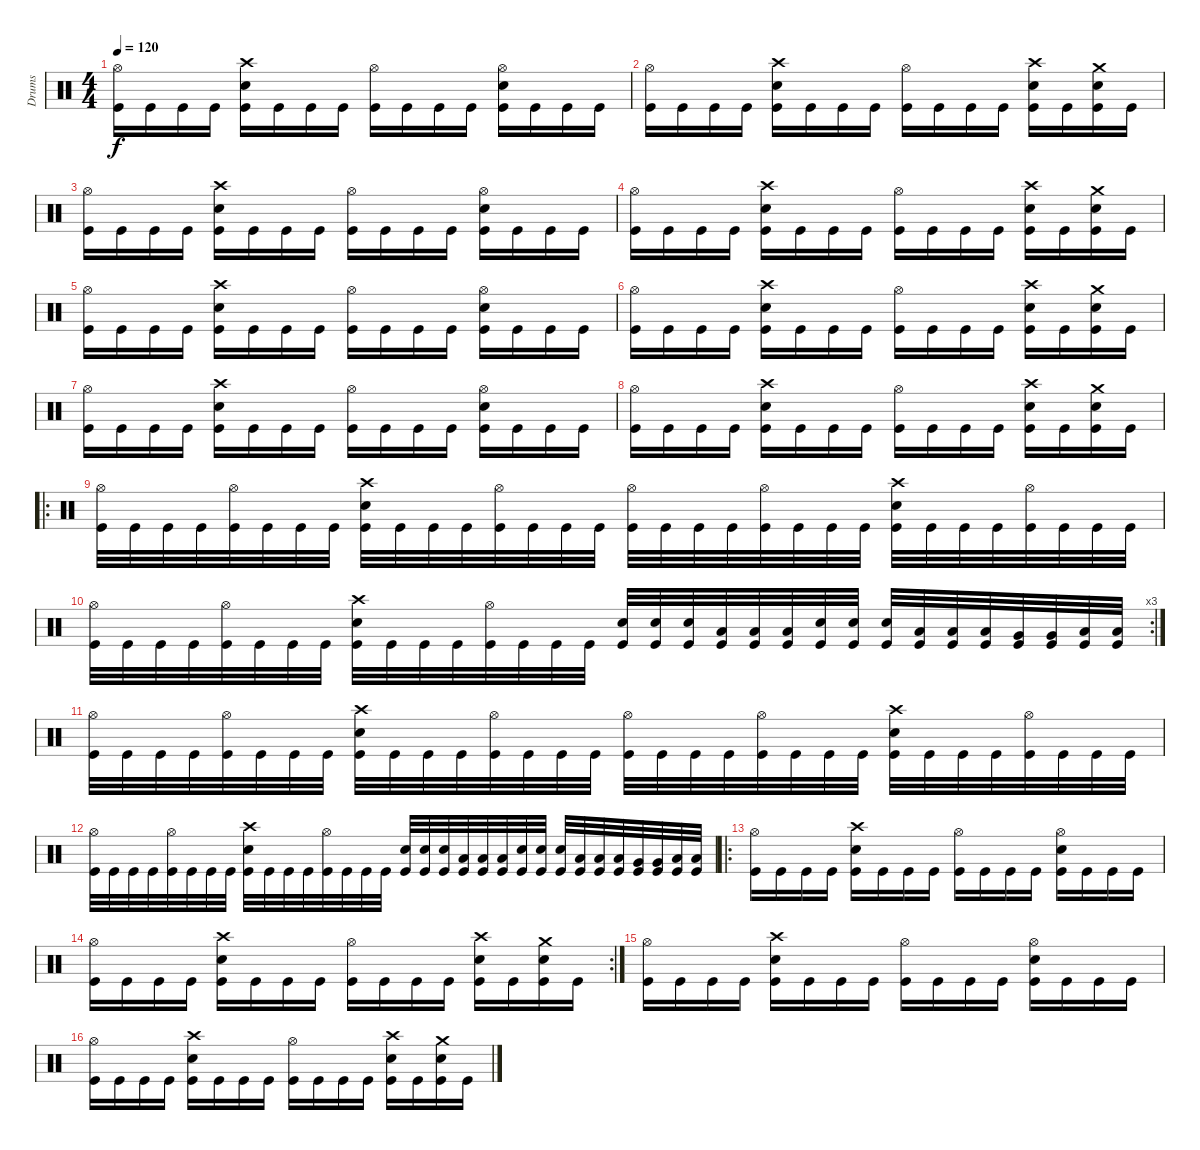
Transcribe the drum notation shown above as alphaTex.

\track ("Drums" "Drums") {instrument percussion}
\staff {score}
\articulation defaults
\ts (4 4)
\tempo 120
\clef neutral
\ks c
("Hi-Hat (open)" "Kick (hit)").16{dy f} "Kick (hit)".16 "Kick (hit)".16 "Kick (hit)".16 ("Electric Snare (hit)" "Crash high (hit)" "Kick (hit)").16 "Kick (hit)".16 "Kick (hit)".16 "Kick (hit)".16 ("Hi-Hat (open)" "Kick (hit)").16 "Kick (hit)".16 "Kick (hit)".16 "Kick (hit)".16 ("Hi-Hat (open)" "Electric Snare (hit)" "Kick (hit)").16 "Kick (hit)".16 "Kick (hit)".16 "Kick (hit)".16 |
("Hi-Hat (open)" "Kick (hit)").16 "Kick (hit)".16 "Kick (hit)".16 "Kick (hit)".16 ("Electric Snare (hit)" "Crash high (hit)" "Kick (hit)").16 "Kick (hit)".16 "Kick (hit)".16 "Kick (hit)".16 ("Hi-Hat (open)" "Kick (hit)").16 "Kick (hit)".16 "Kick (hit)".16 "Kick (hit)".16 ("Electric Snare (hit)" "Crash high (hit)" "Kick (hit)").16 "Kick (hit)".16 ("Electric Snare (hit)" "Crash medium (hit)" "Kick (hit)").16 "Kick (hit)".16 |
("Hi-Hat (open)" "Kick (hit)").16 "Kick (hit)".16 "Kick (hit)".16 "Kick (hit)".16 ("Electric Snare (hit)" "Crash high (hit)" "Kick (hit)").16 "Kick (hit)".16 "Kick (hit)".16 "Kick (hit)".16 ("Hi-Hat (open)" "Kick (hit)").16 "Kick (hit)".16 "Kick (hit)".16 "Kick (hit)".16 ("Hi-Hat (open)" "Electric Snare (hit)" "Kick (hit)").16 "Kick (hit)".16 "Kick (hit)".16 "Kick (hit)".16 |
("Hi-Hat (open)" "Kick (hit)").16 "Kick (hit)".16 "Kick (hit)".16 "Kick (hit)".16 ("Electric Snare (hit)" "Crash high (hit)" "Kick (hit)").16 "Kick (hit)".16 "Kick (hit)".16 "Kick (hit)".16 ("Hi-Hat (open)" "Kick (hit)").16 "Kick (hit)".16 "Kick (hit)".16 "Kick (hit)".16 ("Electric Snare (hit)" "Crash high (hit)" "Kick (hit)").16 "Kick (hit)".16 ("Electric Snare (hit)" "Crash medium (hit)" "Kick (hit)").16 "Kick (hit)".16 |
("Hi-Hat (open)" "Kick (hit)").16 "Kick (hit)".16 "Kick (hit)".16 "Kick (hit)".16 ("Electric Snare (hit)" "Crash high (hit)" "Kick (hit)").16 "Kick (hit)".16 "Kick (hit)".16 "Kick (hit)".16 ("Hi-Hat (open)" "Kick (hit)").16 "Kick (hit)".16 "Kick (hit)".16 "Kick (hit)".16 ("Hi-Hat (open)" "Electric Snare (hit)" "Kick (hit)").16 "Kick (hit)".16 "Kick (hit)".16 "Kick (hit)".16 |
("Hi-Hat (open)" "Kick (hit)").16 "Kick (hit)".16 "Kick (hit)".16 "Kick (hit)".16 ("Electric Snare (hit)" "Crash high (hit)" "Kick (hit)").16 "Kick (hit)".16 "Kick (hit)".16 "Kick (hit)".16 ("Hi-Hat (open)" "Kick (hit)").16 "Kick (hit)".16 "Kick (hit)".16 "Kick (hit)".16 ("Electric Snare (hit)" "Crash high (hit)" "Kick (hit)").16 "Kick (hit)".16 ("Electric Snare (hit)" "Crash medium (hit)" "Kick (hit)").16 "Kick (hit)".16 |
("Hi-Hat (open)" "Kick (hit)").16 "Kick (hit)".16 "Kick (hit)".16 "Kick (hit)".16 ("Electric Snare (hit)" "Crash high (hit)" "Kick (hit)").16 "Kick (hit)".16 "Kick (hit)".16 "Kick (hit)".16 ("Hi-Hat (open)" "Kick (hit)").16 "Kick (hit)".16 "Kick (hit)".16 "Kick (hit)".16 ("Hi-Hat (open)" "Electric Snare (hit)" "Kick (hit)").16 "Kick (hit)".16 "Kick (hit)".16 "Kick (hit)".16 |
("Hi-Hat (open)" "Kick (hit)").16 "Kick (hit)".16 "Kick (hit)".16 "Kick (hit)".16 ("Electric Snare (hit)" "Crash high (hit)" "Kick (hit)").16 "Kick (hit)".16 "Kick (hit)".16 "Kick (hit)".16 ("Hi-Hat (open)" "Kick (hit)").16 "Kick (hit)".16 "Kick (hit)".16 "Kick (hit)".16 ("Electric Snare (hit)" "Crash high (hit)" "Kick (hit)").16 "Kick (hit)".16 ("Electric Snare (hit)" "Crash medium (hit)" "Kick (hit)").16 "Kick (hit)".16 |
\ro
("Hi-Hat (open)" "Kick (hit)").32 "Kick (hit)".32 "Kick (hit)".32 "Kick (hit)".32 ("Hi-Hat (open)" "Kick (hit)").32 "Kick (hit)".32 "Kick (hit)".32 "Kick (hit)".32 ("Crash high (hit)" "Electric Snare (hit)" "Kick (hit)").32 "Kick (hit)".32 "Kick (hit)".32 "Kick (hit)".32 ("Hi-Hat (open)" "Kick (hit)").32 "Kick (hit)".32 "Kick (hit)".32 "Kick (hit)".32 ("Hi-Hat (open)" "Kick (hit)").32 "Kick (hit)".32 "Kick (hit)".32 "Kick (hit)".32 ("Hi-Hat (open)" "Kick (hit)").32 "Kick (hit)".32 "Kick (hit)".32 "Kick (hit)".32 ("Crash high (hit)" "Electric Snare (hit)" "Kick (hit)").32 "Kick (hit)".32 "Kick (hit)".32 "Kick (hit)".32 ("Hi-Hat (open)" "Kick (hit)").32 "Kick (hit)".32 "Kick (hit)".32 "Kick (hit)".32 |
\rc 3
("Hi-Hat (open)" "Kick (hit)").32 "Kick (hit)".32 "Kick (hit)".32 "Kick (hit)".32 ("Hi-Hat (open)" "Kick (hit)").32 "Kick (hit)".32 "Kick (hit)".32 "Kick (hit)".32 ("Crash high (hit)" "Electric Snare (hit)" "Kick (hit)").32 "Kick (hit)".32 "Kick (hit)".32 "Kick (hit)".32 ("Hi-Hat (open)" "Kick (hit)").32 "Kick (hit)".32 "Kick (hit)".32 "Kick (hit)".32 ("Electric Snare (hit)" "Kick (hit)").32 ("Electric Snare (hit)" "Kick (hit)").32 ("Electric Snare (hit)" "Kick (hit)").32 ("Low Tom (hit)" "Kick (hit)").32 ("Low Tom (hit)" "Kick (hit)").32 ("Low Tom (hit)" "Kick (hit)").32 ("Electric Snare (hit)" "Kick (hit)").32 ("Electric Snare (hit)" "Kick (hit)").32 ("Electric Snare (hit)" "Kick (hit)").32 ("Low Tom (hit)" "Kick (hit)").32 ("Low Tom (hit)" "Kick (hit)").32 ("Low Tom (hit)" "Kick (hit)").32 ("Very Low Tom (hit)" "Kick (hit)").32 ("Very Low Tom (hit)" "Kick (hit)").32 ("Low Floor Tom (hit)" "Kick (hit)").32 ("Low Floor Tom (hit)" "Kick (hit)").32 |
("Hi-Hat (open)" "Kick (hit)").32 "Kick (hit)".32 "Kick (hit)".32 "Kick (hit)".32 ("Hi-Hat (open)" "Kick (hit)").32 "Kick (hit)".32 "Kick (hit)".32 "Kick (hit)".32 ("Crash high (hit)" "Electric Snare (hit)" "Kick (hit)").32 "Kick (hit)".32 "Kick (hit)".32 "Kick (hit)".32 ("Hi-Hat (open)" "Kick (hit)").32 "Kick (hit)".32 "Kick (hit)".32 "Kick (hit)".32 ("Hi-Hat (open)" "Kick (hit)").32 "Kick (hit)".32 "Kick (hit)".32 "Kick (hit)".32 ("Hi-Hat (open)" "Kick (hit)").32 "Kick (hit)".32 "Kick (hit)".32 "Kick (hit)".32 ("Crash high (hit)" "Electric Snare (hit)" "Kick (hit)").32 "Kick (hit)".32 "Kick (hit)".32 "Kick (hit)".32 ("Hi-Hat (open)" "Kick (hit)").32 "Kick (hit)".32 "Kick (hit)".32 "Kick (hit)".32 |
("Hi-Hat (open)" "Kick (hit)").32 "Kick (hit)".32 "Kick (hit)".32 "Kick (hit)".32 ("Hi-Hat (open)" "Kick (hit)").32 "Kick (hit)".32 "Kick (hit)".32 "Kick (hit)".32 ("Crash high (hit)" "Electric Snare (hit)" "Kick (hit)").32 "Kick (hit)".32 "Kick (hit)".32 "Kick (hit)".32 ("Hi-Hat (open)" "Kick (hit)").32 "Kick (hit)".32 "Kick (hit)".32 "Kick (hit)".32 ("Electric Snare (hit)" "Kick (hit)").32 ("Electric Snare (hit)" "Kick (hit)").32 ("Electric Snare (hit)" "Kick (hit)").32 ("Low Tom (hit)" "Kick (hit)").32 ("Low Tom (hit)" "Kick (hit)").32 ("Low Tom (hit)" "Kick (hit)").32 ("Electric Snare (hit)" "Kick (hit)").32 ("Electric Snare (hit)" "Kick (hit)").32 ("Electric Snare (hit)" "Kick (hit)").32 ("Low Tom (hit)" "Kick (hit)").32 ("Low Tom (hit)" "Kick (hit)").32 ("Low Tom (hit)" "Kick (hit)").32 ("Very Low Tom (hit)" "Kick (hit)").32 ("Very Low Tom (hit)" "Kick (hit)").32 ("Low Floor Tom (hit)" "Kick (hit)").32 ("Low Floor Tom (hit)" "Kick (hit)").32 |
\ro
("Hi-Hat (open)" "Kick (hit)").16 "Kick (hit)".16 "Kick (hit)".16 "Kick (hit)".16 ("Electric Snare (hit)" "Crash high (hit)" "Kick (hit)").16 "Kick (hit)".16 "Kick (hit)".16 "Kick (hit)".16 ("Hi-Hat (open)" "Kick (hit)").16 "Kick (hit)".16 "Kick (hit)".16 "Kick (hit)".16 ("Hi-Hat (open)" "Electric Snare (hit)" "Kick (hit)").16 "Kick (hit)".16 "Kick (hit)".16 "Kick (hit)".16 |
\rc 2
("Hi-Hat (open)" "Kick (hit)").16 "Kick (hit)".16 "Kick (hit)".16 "Kick (hit)".16 ("Electric Snare (hit)" "Crash high (hit)" "Kick (hit)").16 "Kick (hit)".16 "Kick (hit)".16 "Kick (hit)".16 ("Hi-Hat (open)" "Kick (hit)").16 "Kick (hit)".16 "Kick (hit)".16 "Kick (hit)".16 ("Electric Snare (hit)" "Crash high (hit)" "Kick (hit)").16 "Kick (hit)".16 ("Electric Snare (hit)" "Crash medium (hit)" "Kick (hit)").16 "Kick (hit)".16 |
("Hi-Hat (open)" "Kick (hit)").16 "Kick (hit)".16 "Kick (hit)".16 "Kick (hit)".16 ("Electric Snare (hit)" "Crash high (hit)" "Kick (hit)").16 "Kick (hit)".16 "Kick (hit)".16 "Kick (hit)".16 ("Hi-Hat (open)" "Kick (hit)").16 "Kick (hit)".16 "Kick (hit)".16 "Kick (hit)".16 ("Hi-Hat (open)" "Electric Snare (hit)" "Kick (hit)").16 "Kick (hit)".16 "Kick (hit)".16 "Kick (hit)".16 |
("Hi-Hat (open)" "Kick (hit)").16 "Kick (hit)".16 "Kick (hit)".16 "Kick (hit)".16 ("Electric Snare (hit)" "Crash high (hit)" "Kick (hit)").16 "Kick (hit)".16 "Kick (hit)".16 "Kick (hit)".16 ("Hi-Hat (open)" "Kick (hit)").16 "Kick (hit)".16 "Kick (hit)".16 "Kick (hit)".16 ("Electric Snare (hit)" "Crash high (hit)" "Kick (hit)").16 "Kick (hit)".16 ("Electric Snare (hit)" "Crash medium (hit)" "Kick (hit)").16 "Kick (hit)".16
